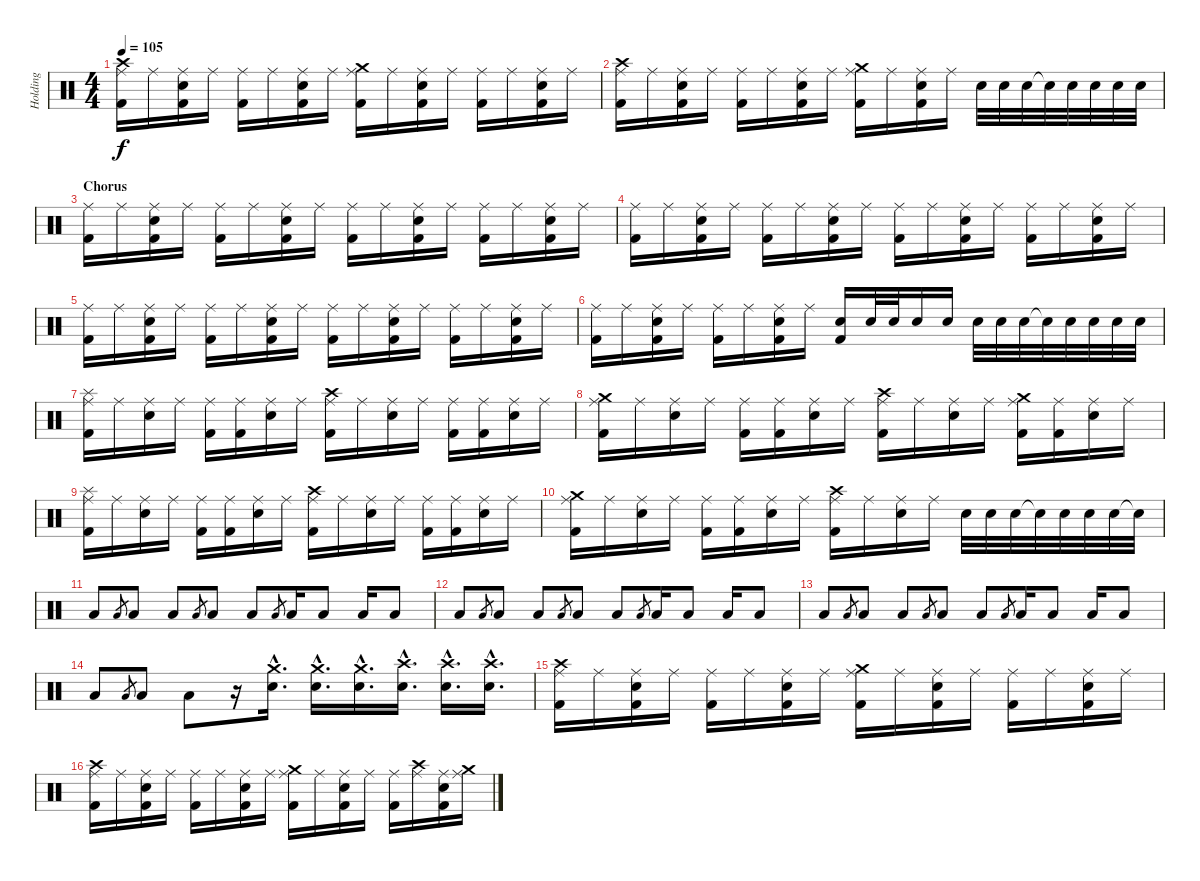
\track ("Holding" "Holding") {instrument percussion}
\staff {score}
\articulation defaults
\ts (4 4)
\tempo 105
\clef neutral
\ks c
("Crash high (hit)" "Ride (middle)" "Kick (hit) 2").16{dy f} "Ride (middle)".16 ("Ride (middle)" "Electric Snare (hit)" "Kick (hit) 2").16 "Ride (middle)".16 ("Ride (middle)" "Kick (hit) 2").16 "Ride (middle)".16 ("Ride (middle)" "Electric Snare (hit)" "Kick (hit) 2").16 "Ride (middle)".16 ("Crash medium (hit)" "Ride (middle)" "Kick (hit) 2").16 "Ride (middle)".16 ("Ride (middle)" "Electric Snare (hit)" "Kick (hit) 2").16 "Ride (middle)".16 ("Ride (middle)" "Kick (hit) 2").16 "Ride (middle)".16 ("Ride (middle)" "Electric Snare (hit)" "Kick (hit) 2").16 "Ride (middle)".16 |
("Crash high (hit)" "Ride (middle)" "Kick (hit) 2").16 "Ride (middle)".16 ("Ride (middle)" "Electric Snare (hit)" "Kick (hit) 2").16 "Ride (middle)".16 ("Ride (middle)" "Kick (hit) 2").16 "Ride (middle)".16 ("Ride (middle)" "Electric Snare (hit)" "Kick (hit) 2").16 "Ride (middle)".16 ("Crash medium (hit)" "Ride (middle)" "Kick (hit) 2").16 "Ride (middle)".16 ("Ride (middle)" "Electric Snare (hit)" "Kick (hit) 2").16 "Ride (middle)".16 "Electric Snare (hit)".32 "Electric Snare (hit)".32 "Electric Snare (hit)".32 "Electric Snare (hit)"{t}.32 "Electric Snare (hit)".32 "Electric Snare (hit)".32 "Electric Snare (hit)".32 "Electric Snare (hit)".32 |
\section ("" "Chorus")
("Ride (middle)" "Kick (hit) 2").16 "Ride (middle)".16 ("Ride (middle)" "Electric Snare (hit)" "Kick (hit) 2").16 "Ride (middle)".16 ("Ride (middle)" "Kick (hit) 2").16 "Ride (middle)".16 ("Ride (middle)" "Electric Snare (hit)" "Kick (hit) 2").16 "Ride (middle)".16 ("Ride (middle)" "Kick (hit) 2").16 "Ride (middle)".16 ("Ride (middle)" "Electric Snare (hit)" "Kick (hit) 2").16 "Ride (middle)".16 ("Ride (middle)" "Kick (hit) 2").16 "Ride (middle)".16 ("Ride (middle)" "Electric Snare (hit)" "Kick (hit) 2").16 "Ride (middle)".16 |
("Ride (middle)" "Kick (hit) 2").16 "Ride (middle)".16 ("Ride (middle)" "Electric Snare (hit)" "Kick (hit) 2").16 "Ride (middle)".16 ("Ride (middle)" "Kick (hit) 2").16 "Ride (middle)".16 ("Ride (middle)" "Electric Snare (hit)" "Kick (hit) 2").16 "Ride (middle)".16 ("Ride (middle)" "Kick (hit) 2").16 "Ride (middle)".16 ("Ride (middle)" "Electric Snare (hit)" "Kick (hit) 2").16 "Ride (middle)".16 ("Ride (middle)" "Kick (hit) 2").16 "Ride (middle)".16 ("Ride (middle)" "Electric Snare (hit)" "Kick (hit) 2").16 "Ride (middle)".16 |
("Ride (middle)" "Kick (hit) 2").16 "Ride (middle)".16 ("Ride (middle)" "Electric Snare (hit)" "Kick (hit) 2").16 "Ride (middle)".16 ("Ride (middle)" "Kick (hit) 2").16 "Ride (middle)".16 ("Ride (middle)" "Electric Snare (hit)" "Kick (hit) 2").16 "Ride (middle)".16 ("Ride (middle)" "Kick (hit) 2").16 "Ride (middle)".16 ("Ride (middle)" "Electric Snare (hit)" "Kick (hit) 2").16 "Ride (middle)".16 ("Ride (middle)" "Kick (hit) 2").16 "Ride (middle)".16 ("Ride (middle)" "Electric Snare (hit)" "Kick (hit) 2").16 "Ride (middle)".16 |
("Ride (middle)" "Kick (hit) 2").16 "Ride (middle)".16 ("Ride (middle)" "Electric Snare (hit)" "Kick (hit) 2").16 "Ride (middle)".16 ("Ride (middle)" "Kick (hit) 2").16 "Ride (middle)".16 ("Ride (middle)" "Electric Snare (hit)" "Kick (hit) 2").16 "Ride (middle)".16 ("Electric Snare (hit)" "Kick (hit) 2").16 "Electric Snare (hit)".32 "Electric Snare (hit)".32 "Electric Snare (hit)".16 "Electric Snare (hit)".16 "Electric Snare (hit)".32 "Electric Snare (hit)".32 "Electric Snare (hit)".32 "Electric Snare (hit)"{t}.32 "Electric Snare (hit)".32 "Electric Snare (hit)".32 "Electric Snare (hit)".32 "Electric Snare (hit)".32 |
("Splash (hit)" "Ride (middle)" "Kick (hit) 2").16 "Ride (middle)".16 ("Ride (middle)" "Electric Snare (hit)").16 "Ride (middle)".16 ("Ride (middle)" "Kick (hit) 2").16 ("Ride (middle)" "Kick (hit) 2").16 ("Ride (middle)" "Electric Snare (hit)").16 "Ride (middle)".16 ("Crash high (hit)" "Ride (middle)" "Kick (hit) 2").16 "Ride (middle)".16 ("Ride (middle)" "Electric Snare (hit)").16 "Ride (middle)".16 ("Ride (middle)" "Kick (hit) 2").16 ("Ride (middle)" "Kick (hit) 2").16 ("Ride (middle)" "Electric Snare (hit)").16 "Ride (middle)".16 |
("Crash medium (hit)" "Ride (middle)" "Kick (hit) 2").16 "Ride (middle)".16 ("Ride (middle)" "Electric Snare (hit)").16 "Ride (middle)".16 ("Ride (middle)" "Kick (hit) 2").16 ("Ride (middle)" "Kick (hit) 2").16 ("Ride (middle)" "Electric Snare (hit)").16 "Ride (middle)".16 ("Crash high (hit)" "Ride (middle)" "Kick (hit) 2").16 "Ride (middle)".16 ("Ride (middle)" "Electric Snare (hit)").16 "Ride (middle)".16 ("Crash medium (hit)" "Ride (middle)" "Kick (hit) 2").16 ("Ride (middle)" "Kick (hit) 2").16 ("Ride (middle)" "Electric Snare (hit)").16 "Ride (middle)".16 |
("Splash (hit)" "Ride (middle)" "Kick (hit) 2").16 "Ride (middle)".16 ("Ride (middle)" "Electric Snare (hit)").16 "Ride (middle)".16 ("Ride (middle)" "Kick (hit) 2").16 ("Ride (middle)" "Kick (hit) 2").16 ("Ride (middle)" "Electric Snare (hit)").16 "Ride (middle)".16 ("Crash high (hit)" "Ride (middle)" "Kick (hit) 2").16 "Ride (middle)".16 ("Ride (middle)" "Electric Snare (hit)").16 "Ride (middle)".16 ("Ride (middle)" "Kick (hit) 2").16 ("Ride (middle)" "Kick (hit) 2").16 ("Ride (middle)" "Electric Snare (hit)").16 "Ride (middle)".16 |
("Crash medium (hit)" "Ride (middle)" "Kick (hit) 2").16 "Ride (middle)".16 ("Ride (middle)" "Electric Snare (hit)").16 "Ride (middle)".16 ("Ride (middle)" "Kick (hit) 2").16 ("Ride (middle)" "Kick (hit) 2").16 ("Ride (middle)" "Electric Snare (hit)").16 "Ride (middle)".16 ("Crash high (hit)" "Ride (middle)" "Kick (hit) 2").16 "Ride (middle)".16 ("Ride (middle)" "Electric Snare (hit)").16 "Ride (middle)".16 "Electric Snare (hit)".32 "Electric Snare (hit)".32 "Electric Snare (hit)".32 "Electric Snare (hit)"{t}.32 "Electric Snare (hit)".32 "Electric Snare (hit)".32 "Electric Snare (hit)".32 "Electric Snare (hit)"{t}.32 |
"Low Floor Tom (hit)".8 "Low Floor Tom (hit)".8{gr} "Low Floor Tom (hit)".8 "Low Floor Tom (hit)".8 "Low Floor Tom (hit)".8{gr} "Low Floor Tom (hit)".8 "Low Floor Tom (hit)".8 "Low Floor Tom (hit)".8{gr} "Low Floor Tom (hit)".16 "Low Floor Tom (hit)".8 "Low Floor Tom (hit)".16 "Low Floor Tom (hit)".8 |
"Low Floor Tom (hit)".8 "Low Floor Tom (hit)".8{gr} "Low Floor Tom (hit)".8 "Low Floor Tom (hit)".8 "Low Floor Tom (hit)".8{gr} "Low Floor Tom (hit)".8 "Low Floor Tom (hit)".8 "Low Floor Tom (hit)".8{gr} "Low Floor Tom (hit)".16 "Low Floor Tom (hit)".8 "Low Floor Tom (hit)".16 "Low Floor Tom (hit)".8 |
"Low Floor Tom (hit)".8 "Low Floor Tom (hit)".8{gr} "Low Floor Tom (hit)".8 "Low Floor Tom (hit)".8 "Low Floor Tom (hit)".8{gr} "Low Floor Tom (hit)".8 "Low Floor Tom (hit)".8 "Low Floor Tom (hit)".8{gr} "Low Floor Tom (hit)".16 "Low Floor Tom (hit)".8 "Low Floor Tom (hit)".16 "Low Floor Tom (hit)".8 |
"Low Floor Tom (hit)".8 "Low Floor Tom (hit)".8{gr} "Low Floor Tom (hit)".8 "Low Floor Tom (hit)".8 r.16 ("Crash medium (hit)"{hac} "Electric Snare (hit)"{hac}).16{d} ("Crash medium (hit)"{hac} "Electric Snare (hit)"{hac}).16{d} ("Crash medium (hit)"{hac} "Electric Snare (hit)"{hac}).16{d} ("Crash high (hit)"{hac} "Electric Snare (hit)"{hac}).16{d} ("Crash high (hit)"{hac} "Electric Snare (hit)"{hac}).16{d} ("Crash high (hit)"{hac} "Electric Snare (hit)"{hac}).16{d} |
("Crash high (hit)" "Ride (middle)" "Kick (hit) 2").16 "Ride (middle)".16 ("Ride (middle)" "Electric Snare (hit)" "Kick (hit) 2").16 "Ride (middle)".16 ("Ride (middle)" "Kick (hit) 2").16 "Ride (middle)".16 ("Ride (middle)" "Electric Snare (hit)" "Kick (hit) 2").16 "Ride (middle)".16 ("Crash medium (hit)" "Ride (middle)" "Kick (hit) 2").16 "Ride (middle)".16 ("Ride (middle)" "Electric Snare (hit)" "Kick (hit) 2").16 "Ride (middle)".16 ("Ride (middle)" "Kick (hit) 2").16 "Ride (middle)".16 ("Ride (middle)" "Electric Snare (hit)" "Kick (hit) 2").16 "Ride (middle)".16 |
("Crash high (hit)" "Ride (middle)" "Kick (hit) 2").16 "Ride (middle)".16 ("Ride (middle)" "Electric Snare (hit)" "Kick (hit) 2").16 "Ride (middle)".16 ("Ride (middle)" "Kick (hit) 2").16 "Ride (middle)".16 ("Ride (middle)" "Electric Snare (hit)" "Kick (hit) 2").16 "Ride (middle)".16 ("Crash medium (hit)" "Ride (middle)" "Kick (hit) 2").16 "Ride (middle)".16 ("Ride (middle)" "Electric Snare (hit)" "Kick (hit) 2").16 "Ride (middle)".16 ("Ride (middle)" "Kick (hit) 2").16 ("Crash high (hit)" "Ride (middle)").16 ("Ride (middle)" "Electric Snare (hit)" "Kick (hit) 2").16 ("Crash medium (hit)" "Ride (middle)").16
